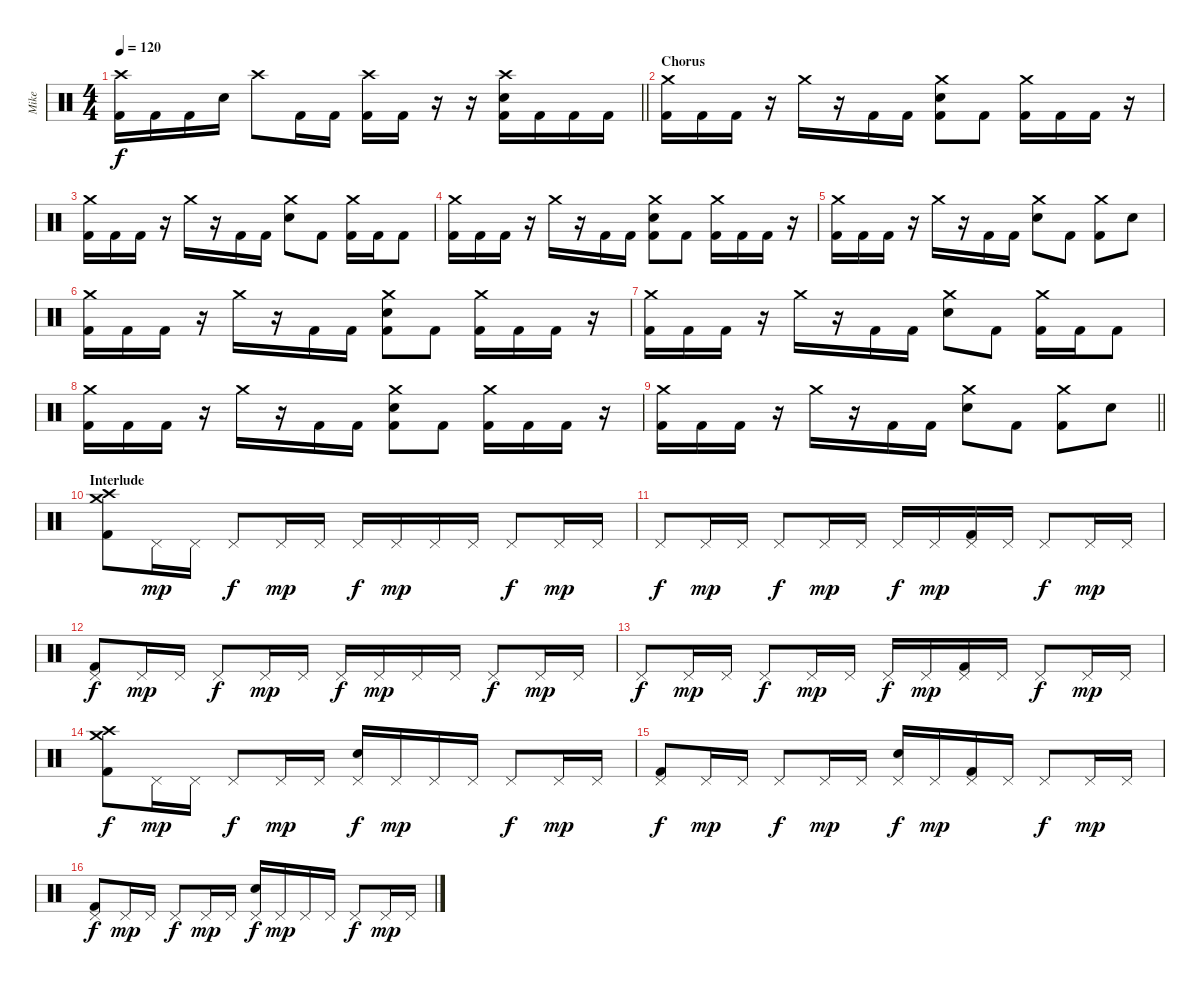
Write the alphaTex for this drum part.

\track ("Mike" "Mike") {instrument percussion}
\staff {score}
\articulation defaults
\ts (4 4)
\tempo 120
\clef neutral
\barLineRight lightlight
\ks c
("Crash high (hit)" "Kick (hit) 2").16{dy f} "Kick (hit) 2".16 "Kick (hit) 2".16 "Snare (hit) 2".16 "Crash high (hit)".8 "Kick (hit) 2".16 "Kick (hit) 2".16 ("Crash high (hit)" "Kick (hit) 2").16 "Kick (hit) 2".16 r.16 r.16 ("Crash high (hit)" "Snare (hit) 2" "Kick (hit) 2").16 "Kick (hit) 2".16 "Kick (hit) 2".16 "Kick (hit) 2".16 |
\section ("" "Chorus")
("Crash medium (hit)" "Kick (hit) 2").16 "Kick (hit) 2".16 "Kick (hit) 2".16 r.16 "Crash medium (hit)".16 r.16 "Kick (hit) 2".16 "Kick (hit) 2".16 ("Crash medium (hit)" "Snare (hit) 2" "Kick (hit) 2").8 "Kick (hit) 2".8 ("Crash medium (hit)" "Kick (hit) 2").16 "Kick (hit) 2".16 "Kick (hit) 2".16 r.16 |
("Crash medium (hit)" "Kick (hit) 2").16 "Kick (hit) 2".16 "Kick (hit) 2".16 r.16 "Crash medium (hit)".16 r.16 "Kick (hit) 2".16 "Kick (hit) 2".16 ("Crash medium (hit)" "Snare (hit) 2").8 "Kick (hit) 2".8 ("Crash medium (hit)" "Kick (hit) 2").16 "Kick (hit) 2".16 "Kick (hit) 2".8 |
("Crash medium (hit)" "Kick (hit) 2").16 "Kick (hit) 2".16 "Kick (hit) 2".16 r.16 "Crash medium (hit)".16 r.16 "Kick (hit) 2".16 "Kick (hit) 2".16 ("Crash medium (hit)" "Snare (hit) 2" "Kick (hit) 2").8 "Kick (hit) 2".8 ("Crash medium (hit)" "Kick (hit) 2").16 "Kick (hit) 2".16 "Kick (hit) 2".16 r.16 |
("Crash medium (hit)" "Kick (hit) 2").16 "Kick (hit) 2".16 "Kick (hit) 2".16 r.16 "Crash medium (hit)".16 r.16 "Kick (hit) 2".16 "Kick (hit) 2".16 ("Crash medium (hit)" "Snare (hit) 2").8 "Kick (hit) 2".8 ("Crash medium (hit)" "Kick (hit) 2").8 "Snare (hit) 2".8 |
("Crash medium (hit)" "Kick (hit) 2").16 "Kick (hit) 2".16 "Kick (hit) 2".16 r.16 "Crash medium (hit)".16 r.16 "Kick (hit) 2".16 "Kick (hit) 2".16 ("Crash medium (hit)" "Snare (hit) 2" "Kick (hit) 2").8 "Kick (hit) 2".8 ("Crash medium (hit)" "Kick (hit) 2").16 "Kick (hit) 2".16 "Kick (hit) 2".16 r.16 |
("Crash medium (hit)" "Kick (hit) 2").16 "Kick (hit) 2".16 "Kick (hit) 2".16 r.16 "Crash medium (hit)".16 r.16 "Kick (hit) 2".16 "Kick (hit) 2".16 ("Crash medium (hit)" "Snare (hit) 2").8 "Kick (hit) 2".8 ("Crash medium (hit)" "Kick (hit) 2").16 "Kick (hit) 2".16 "Kick (hit) 2".8 |
("Crash medium (hit)" "Kick (hit) 2").16 "Kick (hit) 2".16 "Kick (hit) 2".16 r.16 "Crash medium (hit)".16 r.16 "Kick (hit) 2".16 "Kick (hit) 2".16 ("Crash medium (hit)" "Snare (hit) 2" "Kick (hit) 2").8 "Kick (hit) 2".8 ("Crash medium (hit)" "Kick (hit) 2").16 "Kick (hit) 2".16 "Kick (hit) 2".16 r.16 |
\barLineRight lightlight
("Crash medium (hit)" "Kick (hit) 2").16 "Kick (hit) 2".16 "Kick (hit) 2".16 r.16 "Crash medium (hit)".16 r.16 "Kick (hit) 2".16 "Kick (hit) 2".16 ("Crash medium (hit)" "Snare (hit) 2").8 "Kick (hit) 2".8 ("Crash medium (hit)" "Kick (hit) 2").8 "Snare (hit) 2".8 |
\section ("" "Interlude")
("Crash medium (hit)" "Crash high (hit)" "Kick (hit) 2").8 "Pedal Hi-Hat (hit)".16{dy mp} "Pedal Hi-Hat (hit)".16 "Pedal Hi-Hat (hit)".8{dy f} "Pedal Hi-Hat (hit)".16{dy mp} "Pedal Hi-Hat (hit)".16 "Pedal Hi-Hat (hit)".16{dy f} "Pedal Hi-Hat (hit)".16{dy mp} "Pedal Hi-Hat (hit)".16 "Pedal Hi-Hat (hit)".16 "Pedal Hi-Hat (hit)".8{dy f} "Pedal Hi-Hat (hit)".16{dy mp} "Pedal Hi-Hat (hit)".16 |
"Pedal Hi-Hat (hit)".8{dy f} "Pedal Hi-Hat (hit)".16{dy mp} "Pedal Hi-Hat (hit)".16 "Pedal Hi-Hat (hit)".8{dy f} "Pedal Hi-Hat (hit)".16{dy mp} "Pedal Hi-Hat (hit)".16 "Pedal Hi-Hat (hit)".16{dy f} "Pedal Hi-Hat (hit)".16{dy mp} ("Pedal Hi-Hat (hit)" "Kick (hit) 2").16 "Pedal Hi-Hat (hit)".16 "Pedal Hi-Hat (hit)".8{dy f} "Pedal Hi-Hat (hit)".16{dy mp} "Pedal Hi-Hat (hit)".16 |
("Pedal Hi-Hat (hit)" "Kick (hit) 2").8{dy f} "Pedal Hi-Hat (hit)".16{dy mp} "Pedal Hi-Hat (hit)".16 "Pedal Hi-Hat (hit)".8{dy f} "Pedal Hi-Hat (hit)".16{dy mp} "Pedal Hi-Hat (hit)".16 "Pedal Hi-Hat (hit)".16{dy f} "Pedal Hi-Hat (hit)".16{dy mp} "Pedal Hi-Hat (hit)".16 "Pedal Hi-Hat (hit)".16 "Pedal Hi-Hat (hit)".8{dy f} "Pedal Hi-Hat (hit)".16{dy mp} "Pedal Hi-Hat (hit)".16 |
"Pedal Hi-Hat (hit)".8{dy f} "Pedal Hi-Hat (hit)".16{dy mp} "Pedal Hi-Hat (hit)".16 "Pedal Hi-Hat (hit)".8{dy f} "Pedal Hi-Hat (hit)".16{dy mp} "Pedal Hi-Hat (hit)".16 "Pedal Hi-Hat (hit)".16{dy f} "Pedal Hi-Hat (hit)".16{dy mp} ("Pedal Hi-Hat (hit)" "Kick (hit) 2").16 "Pedal Hi-Hat (hit)".16 "Pedal Hi-Hat (hit)".8{dy f} "Pedal Hi-Hat (hit)".16{dy mp} "Pedal Hi-Hat (hit)".16 |
("Crash medium (hit)" "Crash high (hit)" "Kick (hit) 2").8{dy f} "Pedal Hi-Hat (hit)".16{dy mp} "Pedal Hi-Hat (hit)".16 "Pedal Hi-Hat (hit)".8{dy f} "Pedal Hi-Hat (hit)".16{dy mp} "Pedal Hi-Hat (hit)".16 ("Pedal Hi-Hat (hit)" "Snare (hit) 2").16{dy f} "Pedal Hi-Hat (hit)".16{dy mp} "Pedal Hi-Hat (hit)".16 "Pedal Hi-Hat (hit)".16 "Pedal Hi-Hat (hit)".8{dy f} "Pedal Hi-Hat (hit)".16{dy mp} "Pedal Hi-Hat (hit)".16 |
("Pedal Hi-Hat (hit)" "Kick (hit) 2").8{dy f} "Pedal Hi-Hat (hit)".16{dy mp} "Pedal Hi-Hat (hit)".16 "Pedal Hi-Hat (hit)".8{dy f} "Pedal Hi-Hat (hit)".16{dy mp} "Pedal Hi-Hat (hit)".16 ("Pedal Hi-Hat (hit)" "Snare (hit) 2").16{dy f} "Pedal Hi-Hat (hit)".16{dy mp} ("Pedal Hi-Hat (hit)" "Kick (hit) 2").16 "Pedal Hi-Hat (hit)".16 "Pedal Hi-Hat (hit)".8{dy f} "Pedal Hi-Hat (hit)".16{dy mp} "Pedal Hi-Hat (hit)".16 |
("Pedal Hi-Hat (hit)" "Kick (hit) 2").8{dy f} "Pedal Hi-Hat (hit)".16{dy mp} "Pedal Hi-Hat (hit)".16 "Pedal Hi-Hat (hit)".8{dy f} "Pedal Hi-Hat (hit)".16{dy mp} "Pedal Hi-Hat (hit)".16 ("Pedal Hi-Hat (hit)" "Snare (hit) 2").16{dy f} "Pedal Hi-Hat (hit)".16{dy mp} "Pedal Hi-Hat (hit)".16 "Pedal Hi-Hat (hit)".16 "Pedal Hi-Hat (hit)".8{dy f} "Pedal Hi-Hat (hit)".16{dy mp} "Pedal Hi-Hat (hit)".16
